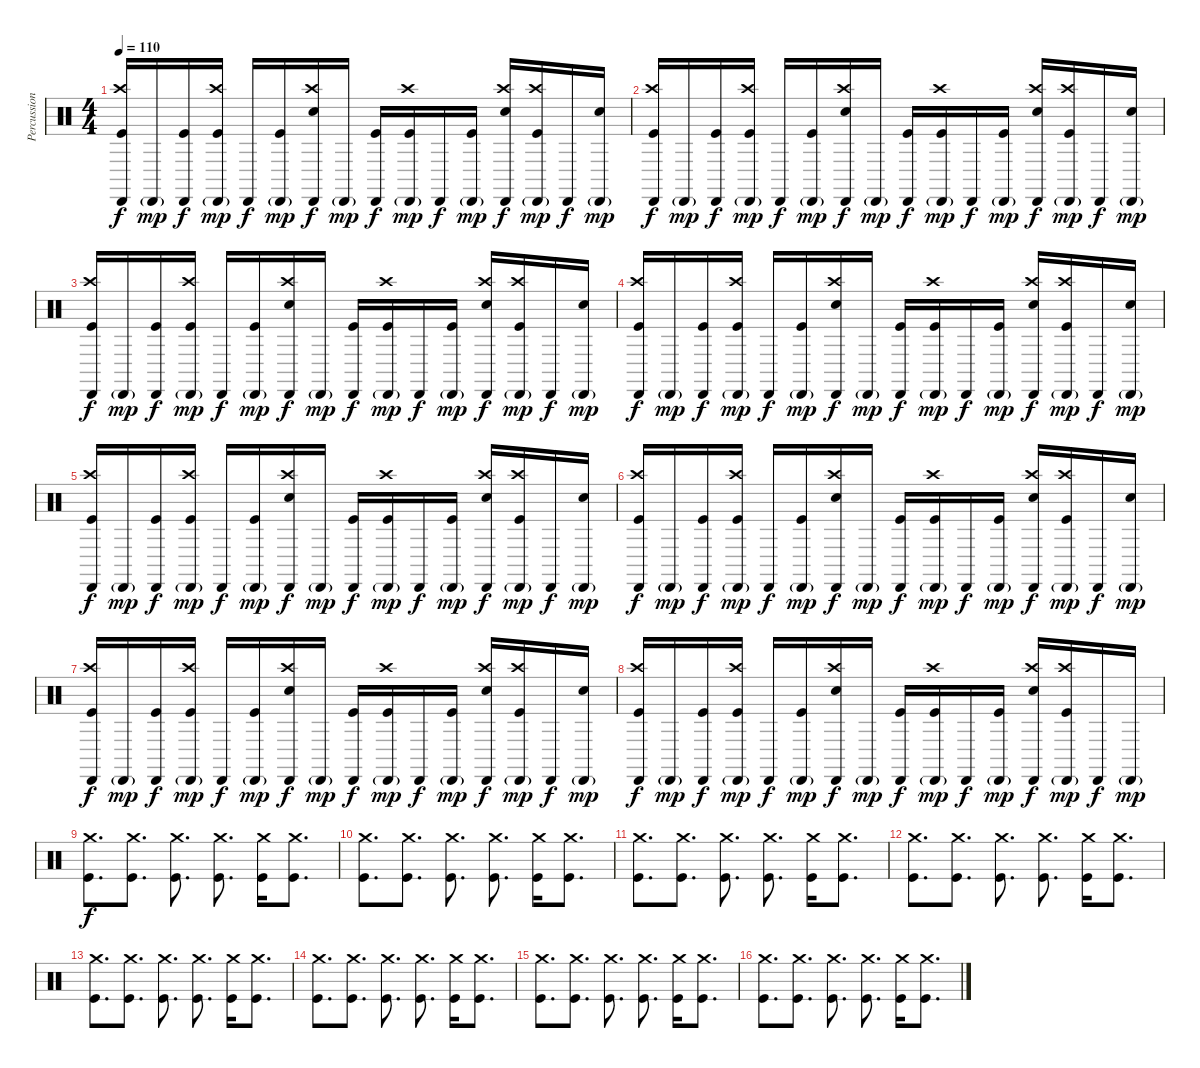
\track ("Percussion" "Percussion") {instrument percussion}
\staff {score}
\articulation defaults
\ts (4 4)
\tempo 110
\clef neutral
\ks c
("Cabasa (hit)" "Crash high (hit)" "Kick (hit)").16{dy f} "Cabasa (hit)"{g}.16{dy mp} ("Cabasa (hit)" "Kick (hit)").16{dy f} ("Cabasa (hit)"{g} "Crash high (hit)" "Kick (hit)").16{dy mp} "Cabasa (hit)".16{dy f} ("Cabasa (hit)"{g} "Kick (hit)").16{dy mp} ("Cabasa (hit)" "Crash high (hit)" "Snare (hit) 2").16{dy f} "Cabasa (hit)"{g}.16{dy mp} ("Cabasa (hit)" "Kick (hit)").16{dy f} ("Cabasa (hit)"{g} "Crash high (hit)" "Kick (hit)").16{dy mp} "Cabasa (hit)".16{dy f} ("Cabasa (hit)"{g} "Kick (hit)").16{dy mp} ("Cabasa (hit)" "Crash high (hit)" "Snare (hit) 2").16{dy f} ("Cabasa (hit)"{g} "Crash high (hit)" "Kick (hit)").16{dy mp} "Cabasa (hit)".16{dy f} ("Cabasa (hit)"{g} "Snare (hit) 2").16{dy mp} |
("Cabasa (hit)" "Crash high (hit)" "Kick (hit)").16{dy f} "Cabasa (hit)"{g}.16{dy mp} ("Cabasa (hit)" "Kick (hit)").16{dy f} ("Cabasa (hit)"{g} "Crash high (hit)" "Kick (hit)").16{dy mp} "Cabasa (hit)".16{dy f} ("Cabasa (hit)"{g} "Kick (hit)").16{dy mp} ("Cabasa (hit)" "Crash high (hit)" "Snare (hit) 2").16{dy f} "Cabasa (hit)"{g}.16{dy mp} ("Cabasa (hit)" "Kick (hit)").16{dy f} ("Cabasa (hit)"{g} "Crash high (hit)" "Kick (hit)").16{dy mp} "Cabasa (hit)".16{dy f} ("Cabasa (hit)"{g} "Kick (hit)").16{dy mp} ("Cabasa (hit)" "Crash high (hit)" "Snare (hit) 2").16{dy f} ("Cabasa (hit)"{g} "Crash high (hit)" "Kick (hit)").16{dy mp} "Cabasa (hit)".16{dy f} ("Cabasa (hit)"{g} "Snare (hit) 2").16{dy mp} |
("Cabasa (hit)" "Crash high (hit)" "Kick (hit)").16{dy f} "Cabasa (hit)"{g}.16{dy mp} ("Cabasa (hit)" "Kick (hit)").16{dy f} ("Cabasa (hit)"{g} "Crash high (hit)" "Kick (hit)").16{dy mp} "Cabasa (hit)".16{dy f} ("Cabasa (hit)"{g} "Kick (hit)").16{dy mp} ("Cabasa (hit)" "Crash high (hit)" "Snare (hit) 2").16{dy f} "Cabasa (hit)"{g}.16{dy mp} ("Cabasa (hit)" "Kick (hit)").16{dy f} ("Cabasa (hit)"{g} "Crash high (hit)" "Kick (hit)").16{dy mp} "Cabasa (hit)".16{dy f} ("Cabasa (hit)"{g} "Kick (hit)").16{dy mp} ("Cabasa (hit)" "Crash high (hit)" "Snare (hit) 2").16{dy f} ("Cabasa (hit)"{g} "Crash high (hit)" "Kick (hit)").16{dy mp} "Cabasa (hit)".16{dy f} ("Cabasa (hit)"{g} "Snare (hit) 2").16{dy mp} |
("Cabasa (hit)" "Crash high (hit)" "Kick (hit)").16{dy f} "Cabasa (hit)"{g}.16{dy mp} ("Cabasa (hit)" "Kick (hit)").16{dy f} ("Cabasa (hit)"{g} "Crash high (hit)" "Kick (hit)").16{dy mp} "Cabasa (hit)".16{dy f} ("Cabasa (hit)"{g} "Kick (hit)").16{dy mp} ("Cabasa (hit)" "Crash high (hit)" "Snare (hit) 2").16{dy f} "Cabasa (hit)"{g}.16{dy mp} ("Cabasa (hit)" "Kick (hit)").16{dy f} ("Cabasa (hit)"{g} "Crash high (hit)" "Kick (hit)").16{dy mp} "Cabasa (hit)".16{dy f} ("Cabasa (hit)"{g} "Kick (hit)").16{dy mp} ("Cabasa (hit)" "Crash high (hit)" "Snare (hit) 2").16{dy f} ("Cabasa (hit)"{g} "Crash high (hit)" "Kick (hit)").16{dy mp} "Cabasa (hit)".16{dy f} ("Cabasa (hit)"{g} "Snare (hit) 2").16{dy mp} |
("Cabasa (hit)" "Crash high (hit)" "Kick (hit)").16{dy f} "Cabasa (hit)"{g}.16{dy mp} ("Cabasa (hit)" "Kick (hit)").16{dy f} ("Cabasa (hit)"{g} "Crash high (hit)" "Kick (hit)").16{dy mp} "Cabasa (hit)".16{dy f} ("Cabasa (hit)"{g} "Kick (hit)").16{dy mp} ("Cabasa (hit)" "Crash high (hit)" "Snare (hit) 2").16{dy f} "Cabasa (hit)"{g}.16{dy mp} ("Cabasa (hit)" "Kick (hit)").16{dy f} ("Cabasa (hit)"{g} "Crash high (hit)" "Kick (hit)").16{dy mp} "Cabasa (hit)".16{dy f} ("Cabasa (hit)"{g} "Kick (hit)").16{dy mp} ("Cabasa (hit)" "Crash high (hit)" "Snare (hit) 2").16{dy f} ("Cabasa (hit)"{g} "Crash high (hit)" "Kick (hit)").16{dy mp} "Cabasa (hit)".16{dy f} ("Cabasa (hit)"{g} "Snare (hit) 2").16{dy mp} |
("Cabasa (hit)" "Crash high (hit)" "Kick (hit)").16{dy f} "Cabasa (hit)"{g}.16{dy mp} ("Cabasa (hit)" "Kick (hit)").16{dy f} ("Cabasa (hit)"{g} "Crash high (hit)" "Kick (hit)").16{dy mp} "Cabasa (hit)".16{dy f} ("Cabasa (hit)"{g} "Kick (hit)").16{dy mp} ("Cabasa (hit)" "Crash high (hit)" "Snare (hit) 2").16{dy f} "Cabasa (hit)"{g}.16{dy mp} ("Cabasa (hit)" "Kick (hit)").16{dy f} ("Cabasa (hit)"{g} "Crash high (hit)" "Kick (hit)").16{dy mp} "Cabasa (hit)".16{dy f} ("Cabasa (hit)"{g} "Kick (hit)").16{dy mp} ("Cabasa (hit)" "Crash high (hit)" "Snare (hit) 2").16{dy f} ("Cabasa (hit)"{g} "Crash high (hit)" "Kick (hit)").16{dy mp} "Cabasa (hit)".16{dy f} ("Cabasa (hit)"{g} "Snare (hit) 2").16{dy mp} |
("Cabasa (hit)" "Crash high (hit)" "Kick (hit)").16{dy f} "Cabasa (hit)"{g}.16{dy mp} ("Cabasa (hit)" "Kick (hit)").16{dy f} ("Cabasa (hit)"{g} "Crash high (hit)" "Kick (hit)").16{dy mp} "Cabasa (hit)".16{dy f} ("Cabasa (hit)"{g} "Kick (hit)").16{dy mp} ("Cabasa (hit)" "Crash high (hit)" "Snare (hit) 2").16{dy f} "Cabasa (hit)"{g}.16{dy mp} ("Cabasa (hit)" "Kick (hit)").16{dy f} ("Cabasa (hit)"{g} "Crash high (hit)" "Kick (hit)").16{dy mp} "Cabasa (hit)".16{dy f} ("Cabasa (hit)"{g} "Kick (hit)").16{dy mp} ("Cabasa (hit)" "Crash high (hit)" "Snare (hit) 2").16{dy f} ("Cabasa (hit)"{g} "Crash high (hit)" "Kick (hit)").16{dy mp} "Cabasa (hit)".16{dy f} ("Cabasa (hit)"{g} "Snare (hit) 2").16{dy mp} |
("Cabasa (hit)" "Crash high (hit)" "Kick (hit)").16{dy f} "Cabasa (hit)"{g}.16{dy mp} ("Cabasa (hit)" "Kick (hit)").16{dy f} ("Cabasa (hit)"{g} "Crash high (hit)" "Kick (hit)").16{dy mp} "Cabasa (hit)".16{dy f} ("Cabasa (hit)"{g} "Kick (hit)").16{dy mp} ("Cabasa (hit)" "Crash high (hit)" "Snare (hit) 2").16{dy f} "Cabasa (hit)"{g}.16{dy mp} ("Cabasa (hit)" "Kick (hit)").16{dy f} ("Cabasa (hit)"{g} "Crash high (hit)" "Kick (hit)").16{dy mp} "Cabasa (hit)".16{dy f} ("Cabasa (hit)"{g} "Kick (hit)").16{dy mp} ("Cabasa (hit)" "Crash high (hit)" "Snare (hit) 2").16{dy f} ("Cabasa (hit)"{g} "Crash high (hit)" "Kick (hit)").16{dy mp} "Cabasa (hit)".16{dy f} "Cabasa (hit)"{g}.16{dy mp} |
("Crash medium (hit)" "Kick (hit)").8{d dy f} ("Crash medium (hit)" "Kick (hit)").8{d} ("Crash medium (hit)" "Kick (hit)").8{d} ("Crash medium (hit)" "Kick (hit)").8{d} ("Crash medium (hit)" "Kick (hit)").16 ("Crash medium (hit)" "Kick (hit)").8{d} |
("Crash medium (hit)" "Kick (hit)").8{d} ("Crash medium (hit)" "Kick (hit)").8{d} ("Crash medium (hit)" "Kick (hit)").8{d} ("Crash medium (hit)" "Kick (hit)").8{d} ("Crash medium (hit)" "Kick (hit)").16 ("Crash medium (hit)" "Kick (hit)").8{d} |
("Crash medium (hit)" "Kick (hit)").8{d} ("Crash medium (hit)" "Kick (hit)").8{d} ("Crash medium (hit)" "Kick (hit)").8{d} ("Crash medium (hit)" "Kick (hit)").8{d} ("Crash medium (hit)" "Kick (hit)").16 ("Crash medium (hit)" "Kick (hit)").8{d} |
("Crash medium (hit)" "Kick (hit)").8{d} ("Crash medium (hit)" "Kick (hit)").8{d} ("Crash medium (hit)" "Kick (hit)").8{d} ("Crash medium (hit)" "Kick (hit)").8{d} ("Crash medium (hit)" "Kick (hit)").16 ("Crash medium (hit)" "Kick (hit)").8{d} |
("Crash medium (hit)" "Kick (hit)").8{d} ("Crash medium (hit)" "Kick (hit)").8{d} ("Crash medium (hit)" "Kick (hit)").8{d} ("Crash medium (hit)" "Kick (hit)").8{d} ("Crash medium (hit)" "Kick (hit)").16 ("Crash medium (hit)" "Kick (hit)").8{d} |
("Crash medium (hit)" "Kick (hit)").8{d} ("Crash medium (hit)" "Kick (hit)").8{d} ("Crash medium (hit)" "Kick (hit)").8{d} ("Crash medium (hit)" "Kick (hit)").8{d} ("Crash medium (hit)" "Kick (hit)").16 ("Crash medium (hit)" "Kick (hit)").8{d} |
("Crash medium (hit)" "Kick (hit)").8{d} ("Crash medium (hit)" "Kick (hit)").8{d} ("Crash medium (hit)" "Kick (hit)").8{d} ("Crash medium (hit)" "Kick (hit)").8{d} ("Crash medium (hit)" "Kick (hit)").16 ("Crash medium (hit)" "Kick (hit)").8{d} |
("Crash medium (hit)" "Kick (hit)").8{d} ("Crash medium (hit)" "Kick (hit)").8{d} ("Crash medium (hit)" "Kick (hit)").8{d} ("Crash medium (hit)" "Kick (hit)").8{d} ("Crash medium (hit)" "Kick (hit)").16 ("Crash medium (hit)" "Kick (hit)").8{d}
